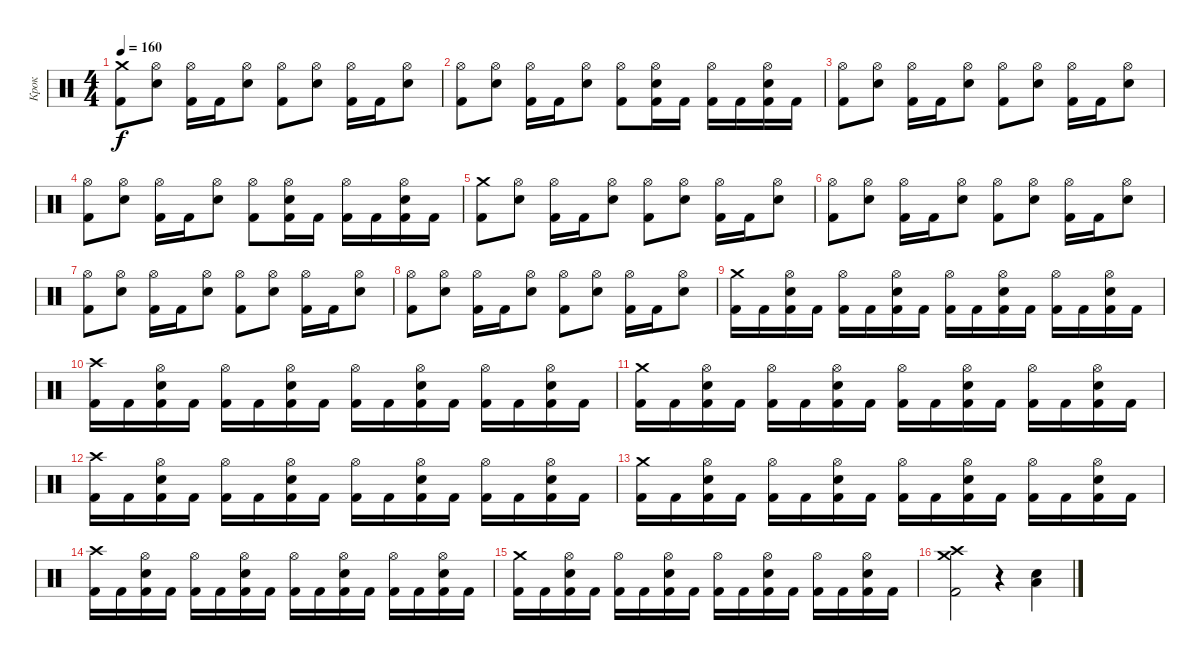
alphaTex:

\track ("Крок" "Крок") {instrument percussion}
\staff {score}
\articulation defaults
\ts (4 4)
\tempo 160
\clef neutral
\ks c
("Kick (hit) 2" "Crash medium (hit)").8{dy f} ("Electric Snare (hit)" "Hi-Hat (open)").8 ("Kick (hit) 2" "Hi-Hat (open)").16 "Kick (hit) 2".16 ("Electric Snare (hit)" "Hi-Hat (open)").8 ("Kick (hit) 2" "Hi-Hat (open)").8 ("Electric Snare (hit)" "Hi-Hat (open)").8 ("Kick (hit) 2" "Hi-Hat (open)").16 "Kick (hit) 2".16 ("Electric Snare (hit)" "Hi-Hat (open)").8 |
("Kick (hit) 2" "Hi-Hat (open)").8 ("Electric Snare (hit)" "Hi-Hat (open)").8 ("Kick (hit) 2" "Hi-Hat (open)").16 "Kick (hit) 2".16 ("Electric Snare (hit)" "Hi-Hat (open)").8 ("Kick (hit) 2" "Hi-Hat (open)").8 ("Kick (hit) 2" "Electric Snare (hit)" "Hi-Hat (open)").16 "Kick (hit) 2".16 ("Kick (hit) 2" "Hi-Hat (open)").16 "Kick (hit) 2".16 ("Kick (hit) 2" "Electric Snare (hit)" "Hi-Hat (open)").16 "Kick (hit) 2".16 |
("Kick (hit) 2" "Hi-Hat (open)").8 ("Electric Snare (hit)" "Hi-Hat (open)").8 ("Kick (hit) 2" "Hi-Hat (open)").16 "Kick (hit) 2".16 ("Electric Snare (hit)" "Hi-Hat (open)").8 ("Kick (hit) 2" "Hi-Hat (open)").8 ("Electric Snare (hit)" "Hi-Hat (open)").8 ("Kick (hit) 2" "Hi-Hat (open)").16 "Kick (hit) 2".16 ("Electric Snare (hit)" "Hi-Hat (open)").8 |
("Kick (hit) 2" "Hi-Hat (open)").8 ("Electric Snare (hit)" "Hi-Hat (open)").8 ("Kick (hit) 2" "Hi-Hat (open)").16 "Kick (hit) 2".16 ("Electric Snare (hit)" "Hi-Hat (open)").8 ("Kick (hit) 2" "Hi-Hat (open)").8 ("Kick (hit) 2" "Electric Snare (hit)" "Hi-Hat (open)").16 "Kick (hit) 2".16 ("Kick (hit) 2" "Hi-Hat (open)").16 "Kick (hit) 2".16 ("Kick (hit) 2" "Electric Snare (hit)" "Hi-Hat (open)").16 "Kick (hit) 2".16 |
("Kick (hit) 2" "Crash medium (hit)").8 ("Electric Snare (hit)" "Hi-Hat (open)").8 ("Kick (hit) 2" "Hi-Hat (open)").16 "Kick (hit) 2".16 ("Electric Snare (hit)" "Hi-Hat (open)").8 ("Kick (hit) 2" "Hi-Hat (open)").8 ("Electric Snare (hit)" "Hi-Hat (open)").8 ("Kick (hit) 2" "Hi-Hat (open)").16 "Kick (hit) 2".16 ("Electric Snare (hit)" "Hi-Hat (open)").8 |
("Kick (hit) 2" "Hi-Hat (open)").8 ("Electric Snare (hit)" "Hi-Hat (open)").8 ("Kick (hit) 2" "Hi-Hat (open)").16 "Kick (hit) 2".16 ("Electric Snare (hit)" "Hi-Hat (open)").8 ("Kick (hit) 2" "Hi-Hat (open)").8 ("Electric Snare (hit)" "Hi-Hat (open)").8 ("Kick (hit) 2" "Hi-Hat (open)").16 "Kick (hit) 2".16 ("Electric Snare (hit)" "Hi-Hat (open)").8 |
("Kick (hit) 2" "Hi-Hat (open)").8 ("Electric Snare (hit)" "Hi-Hat (open)").8 ("Kick (hit) 2" "Hi-Hat (open)").16 "Kick (hit) 2".16 ("Electric Snare (hit)" "Hi-Hat (open)").8 ("Kick (hit) 2" "Hi-Hat (open)").8 ("Electric Snare (hit)" "Hi-Hat (open)").8 ("Kick (hit) 2" "Hi-Hat (open)").16 "Kick (hit) 2".16 ("Electric Snare (hit)" "Hi-Hat (open)").8 |
("Kick (hit) 2" "Hi-Hat (open)").8 ("Electric Snare (hit)" "Hi-Hat (open)").8 ("Kick (hit) 2" "Hi-Hat (open)").16 "Kick (hit) 2".16 ("Electric Snare (hit)" "Hi-Hat (open)").8 ("Kick (hit) 2" "Hi-Hat (open)").8 ("Electric Snare (hit)" "Hi-Hat (open)").8 ("Kick (hit) 2" "Hi-Hat (open)").16 "Kick (hit) 2".16 ("Electric Snare (hit)" "Hi-Hat (open)").8 |
("Kick (hit) 2" "Crash medium (hit)").16 "Kick (hit) 2".16 ("Kick (hit) 2" "Electric Snare (hit)" "Hi-Hat (open)").16 "Kick (hit) 2".16 ("Kick (hit) 2" "Hi-Hat (open)").16 "Kick (hit) 2".16 ("Kick (hit) 2" "Electric Snare (hit)" "Hi-Hat (open)").16 "Kick (hit) 2".16 ("Kick (hit) 2" "Hi-Hat (open)").16 "Kick (hit) 2".16 ("Kick (hit) 2" "Electric Snare (hit)" "Hi-Hat (open)").16 "Kick (hit) 2".16 ("Kick (hit) 2" "Hi-Hat (open)").16 "Kick (hit) 2".16 ("Kick (hit) 2" "Electric Snare (hit)" "Hi-Hat (open)").16 "Kick (hit) 2".16 |
("Kick (hit) 2" "Crash high (hit)").16 "Kick (hit) 2".16 ("Kick (hit) 2" "Electric Snare (hit)" "Hi-Hat (open)").16 "Kick (hit) 2".16 ("Kick (hit) 2" "Hi-Hat (open)").16 "Kick (hit) 2".16 ("Kick (hit) 2" "Electric Snare (hit)" "Hi-Hat (open)").16 "Kick (hit) 2".16 ("Kick (hit) 2" "Hi-Hat (open)").16 "Kick (hit) 2".16 ("Kick (hit) 2" "Electric Snare (hit)" "Hi-Hat (open)").16 "Kick (hit) 2".16 ("Kick (hit) 2" "Hi-Hat (open)").16 "Kick (hit) 2".16 ("Kick (hit) 2" "Electric Snare (hit)" "Hi-Hat (open)").16 "Kick (hit) 2".16 |
("Kick (hit) 2" "Crash medium (hit)").16 "Kick (hit) 2".16 ("Kick (hit) 2" "Electric Snare (hit)" "Hi-Hat (open)").16 "Kick (hit) 2".16 ("Kick (hit) 2" "Hi-Hat (open)").16 "Kick (hit) 2".16 ("Kick (hit) 2" "Electric Snare (hit)" "Hi-Hat (open)").16 "Kick (hit) 2".16 ("Kick (hit) 2" "Hi-Hat (open)").16 "Kick (hit) 2".16 ("Kick (hit) 2" "Electric Snare (hit)" "Hi-Hat (open)").16 "Kick (hit) 2".16 ("Kick (hit) 2" "Hi-Hat (open)").16 "Kick (hit) 2".16 ("Kick (hit) 2" "Electric Snare (hit)" "Hi-Hat (open)").16 "Kick (hit) 2".16 |
("Kick (hit) 2" "Crash high (hit)").16 "Kick (hit) 2".16 ("Kick (hit) 2" "Electric Snare (hit)" "Hi-Hat (open)").16 "Kick (hit) 2".16 ("Kick (hit) 2" "Hi-Hat (open)").16 "Kick (hit) 2".16 ("Kick (hit) 2" "Electric Snare (hit)" "Hi-Hat (open)").16 "Kick (hit) 2".16 ("Kick (hit) 2" "Hi-Hat (open)").16 "Kick (hit) 2".16 ("Kick (hit) 2" "Electric Snare (hit)" "Hi-Hat (open)").16 "Kick (hit) 2".16 ("Kick (hit) 2" "Hi-Hat (open)").16 "Kick (hit) 2".16 ("Kick (hit) 2" "Electric Snare (hit)" "Hi-Hat (open)").16 "Kick (hit) 2".16 |
("Kick (hit) 2" "Crash medium (hit)").16 "Kick (hit) 2".16 ("Kick (hit) 2" "Electric Snare (hit)" "Hi-Hat (open)").16 "Kick (hit) 2".16 ("Kick (hit) 2" "Hi-Hat (open)").16 "Kick (hit) 2".16 ("Kick (hit) 2" "Electric Snare (hit)" "Hi-Hat (open)").16 "Kick (hit) 2".16 ("Kick (hit) 2" "Hi-Hat (open)").16 "Kick (hit) 2".16 ("Kick (hit) 2" "Electric Snare (hit)" "Hi-Hat (open)").16 "Kick (hit) 2".16 ("Kick (hit) 2" "Hi-Hat (open)").16 "Kick (hit) 2".16 ("Kick (hit) 2" "Electric Snare (hit)" "Hi-Hat (open)").16 "Kick (hit) 2".16 |
("Kick (hit) 2" "Crash high (hit)").16 "Kick (hit) 2".16 ("Kick (hit) 2" "Electric Snare (hit)" "Hi-Hat (open)").16 "Kick (hit) 2".16 ("Kick (hit) 2" "Hi-Hat (open)").16 "Kick (hit) 2".16 ("Kick (hit) 2" "Electric Snare (hit)" "Hi-Hat (open)").16 "Kick (hit) 2".16 ("Kick (hit) 2" "Hi-Hat (open)").16 "Kick (hit) 2".16 ("Kick (hit) 2" "Electric Snare (hit)" "Hi-Hat (open)").16 "Kick (hit) 2".16 ("Kick (hit) 2" "Hi-Hat (open)").16 "Kick (hit) 2".16 ("Kick (hit) 2" "Electric Snare (hit)" "Hi-Hat (open)").16 "Kick (hit) 2".16 |
("Kick (hit) 2" "Crash medium (hit)").16 "Kick (hit) 2".16 ("Kick (hit) 2" "Electric Snare (hit)" "Hi-Hat (open)").16 "Kick (hit) 2".16 ("Kick (hit) 2" "Hi-Hat (open)").16 "Kick (hit) 2".16 ("Kick (hit) 2" "Electric Snare (hit)" "Hi-Hat (open)").16 "Kick (hit) 2".16 ("Kick (hit) 2" "Hi-Hat (open)").16 "Kick (hit) 2".16 ("Kick (hit) 2" "Electric Snare (hit)" "Hi-Hat (open)").16 "Kick (hit) 2".16 ("Kick (hit) 2" "Hi-Hat (open)").16 "Kick (hit) 2".16 ("Kick (hit) 2" "Electric Snare (hit)" "Hi-Hat (open)").16 "Kick (hit) 2".16 |
("Kick (hit) 2" "Crash high (hit)" "Crash medium (hit)").2 r.4 ("Electric Snare (hit)" "Low Floor Tom (hit)").4
